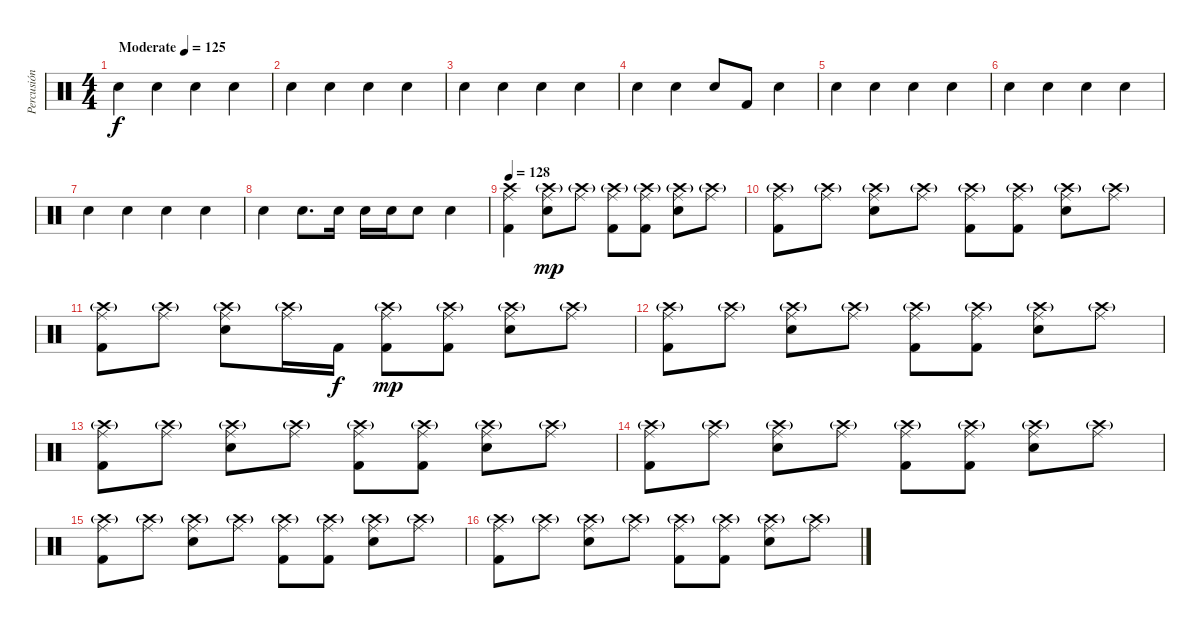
\track ("Percusión" "Percusión") {instrument percussion}
\staff {score}
\articulation defaults
\ts (4 4)
\tempo (125 "Moderate")
\clef neutral
\ks c "Snare (hit) 2".4{dy f} "Snare (hit) 2".4 "Snare (hit) 2".4 "Snare (hit) 2".4
|
"Snare (hit) 2".4 "Snare (hit) 2".4 "Snare (hit) 2".4 "Snare (hit) 2".4 |
"Snare (hit) 2".4 "Snare (hit) 2".4 "Snare (hit) 2".4 "Snare (hit) 2".4 |
"Snare (hit) 2".4 "Snare (hit) 2".4 "Snare (hit) 2".8 "Kick (hit) 2".8 "Snare (hit) 2".4 |
"Snare (hit) 2".4 "Snare (hit) 2".4 "Snare (hit) 2".4 "Snare (hit) 2".4 |
"Snare (hit) 2".4 "Snare (hit) 2".4 "Snare (hit) 2".4 "Snare (hit) 2".4 |
"Snare (hit) 2".4 "Snare (hit) 2".4 "Snare (hit) 2".4 "Snare (hit) 2".4 |
"Snare (hit) 2".4 "Snare (hit) 2".8{d} "Snare (hit) 2".16 "Snare (hit) 2".16 "Snare (hit) 2".16 "Snare (hit) 2".8 "Snare (hit) 2".4 |
\tempo 128
("Crash high (hit)" "Ride (middle)" "Kick (hit) 2").4 ("Crash high (hit)"{g} "Ride (middle)" "Snare (hit) 2").8{dy mp} ("Crash high (hit)"{g} "Ride (middle)").8 ("Crash high (hit)"{g} "Ride (middle)" "Kick (hit) 2").8 ("Crash high (hit)"{g} "Ride (middle)" "Kick (hit) 2").8 ("Crash high (hit)"{g} "Ride (middle)" "Snare (hit) 2").8 ("Crash high (hit)"{g} "Ride (middle)").8 |
("Crash high (hit)"{g} "Ride (middle)" "Kick (hit) 2").8 ("Crash high (hit)"{g} "Ride (middle)").8 ("Crash high (hit)"{g} "Ride (middle)" "Snare (hit) 2").8 ("Crash high (hit)"{g} "Ride (middle)").8 ("Crash high (hit)"{g} "Ride (middle)" "Kick (hit) 2").8 ("Crash high (hit)"{g} "Ride (middle)" "Kick (hit) 2").8 ("Crash high (hit)"{g} "Ride (middle)" "Snare (hit) 2").8 ("Crash high (hit)"{g} "Ride (middle)").8 |
("Crash high (hit)"{g} "Ride (middle)" "Kick (hit) 2").8 ("Crash high (hit)"{g} "Ride (middle)").8 ("Crash high (hit)"{g} "Ride (middle)" "Snare (hit) 2").8 ("Crash high (hit)"{g} "Ride (middle)").16 "Kick (hit) 2".16{dy f} ("Crash high (hit)"{g} "Ride (middle)" "Kick (hit) 2").8{dy mp} ("Crash high (hit)"{g} "Ride (middle)" "Kick (hit) 2").8 ("Crash high (hit)"{g} "Ride (middle)" "Snare (hit) 2").8 ("Crash high (hit)"{g} "Ride (middle)").8 |
("Crash high (hit)"{g} "Ride (middle)" "Kick (hit) 2").8 ("Crash high (hit)"{g} "Ride (middle)").8 ("Crash high (hit)"{g} "Ride (middle)" "Snare (hit) 2").8 ("Crash high (hit)"{g} "Ride (middle)").8 ("Crash high (hit)"{g} "Ride (middle)" "Kick (hit) 2").8 ("Crash high (hit)"{g} "Ride (middle)" "Kick (hit) 2").8 ("Crash high (hit)"{g} "Ride (middle)" "Snare (hit) 2").8 ("Crash high (hit)"{g} "Ride (middle)").8 |
("Crash high (hit)"{g} "Ride (middle)" "Kick (hit) 2").8 ("Crash high (hit)"{g} "Ride (middle)").8 ("Crash high (hit)"{g} "Ride (middle)" "Snare (hit) 2").8 ("Crash high (hit)"{g} "Ride (middle)").8 ("Crash high (hit)"{g} "Ride (middle)" "Kick (hit) 2").8 ("Crash high (hit)"{g} "Ride (middle)" "Kick (hit) 2").8 ("Crash high (hit)"{g} "Ride (middle)" "Snare (hit) 2").8 ("Crash high (hit)"{g} "Ride (middle)").8 |
("Crash high (hit)"{g} "Ride (middle)" "Kick (hit) 2").8 ("Crash high (hit)"{g} "Ride (middle)").8 ("Crash high (hit)"{g} "Ride (middle)" "Snare (hit) 2").8 ("Crash high (hit)"{g} "Ride (middle)").8 ("Crash high (hit)"{g} "Ride (middle)" "Kick (hit) 2").8 ("Crash high (hit)"{g} "Ride (middle)" "Kick (hit) 2").8 ("Crash high (hit)"{g} "Ride (middle)" "Snare (hit) 2").8 ("Crash high (hit)"{g} "Ride (middle)").8 |
("Crash high (hit)"{g} "Ride (middle)" "Kick (hit) 2").8 ("Crash high (hit)"{g} "Ride (middle)").8 ("Crash high (hit)"{g} "Ride (middle)" "Snare (hit) 2").8 ("Crash high (hit)"{g} "Ride (middle)").8 ("Crash high (hit)"{g} "Ride (middle)" "Kick (hit) 2").8 ("Crash high (hit)"{g} "Ride (middle)" "Kick (hit) 2").8 ("Crash high (hit)"{g} "Ride (middle)" "Snare (hit) 2").8 ("Crash high (hit)"{g} "Ride (middle)").8 |
("Crash high (hit)"{g} "Ride (middle)" "Kick (hit) 2").8 ("Crash high (hit)"{g} "Ride (middle)").8 ("Crash high (hit)"{g} "Ride (middle)" "Snare (hit) 2").8 ("Crash high (hit)"{g} "Ride (middle)").8 ("Crash high (hit)"{g} "Ride (middle)" "Kick (hit) 2").8 ("Crash high (hit)"{g} "Ride (middle)" "Kick (hit) 2").8 ("Crash high (hit)"{g} "Ride (middle)" "Snare (hit) 2").8 ("Crash high (hit)"{g} "Ride (middle)").8
